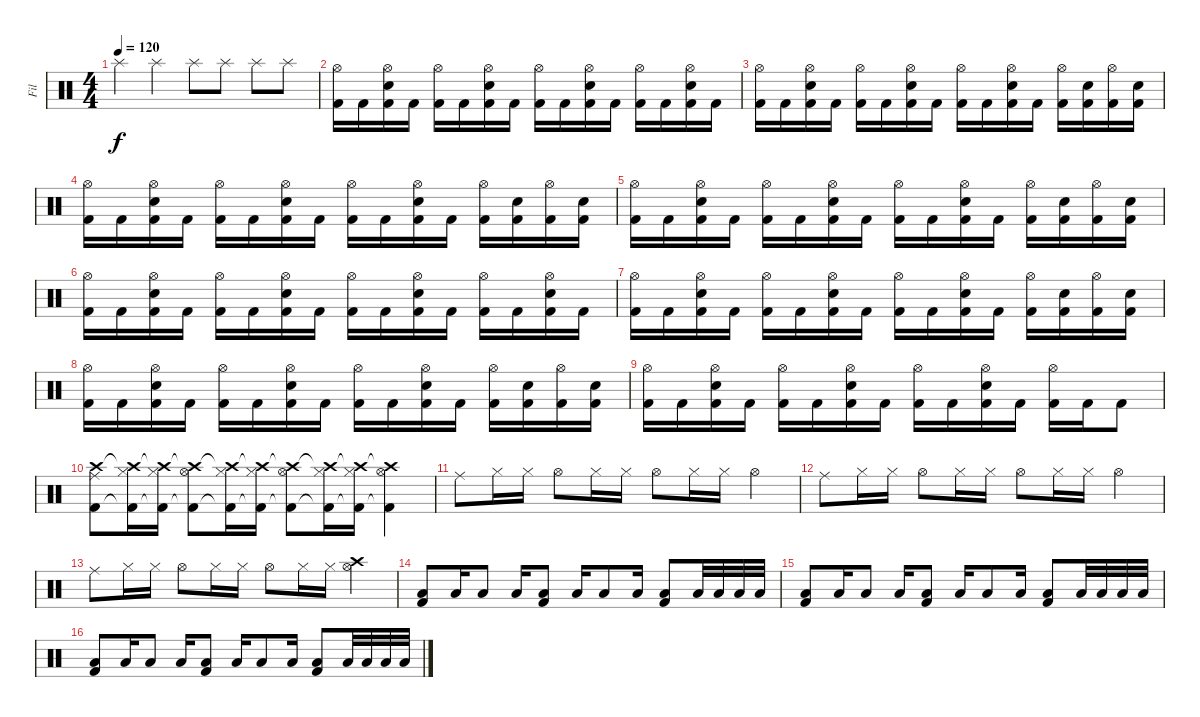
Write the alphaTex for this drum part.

\track ("Fil" "Fil") {instrument percussion}
\staff {score}
\articulation defaults
\ts (4 4)
\tempo 120
\clef neutral
\ks c "Splash (hit)".4{dy f} "Splash (hit)".4 "Splash (hit)".8 "Splash (hit)".8 "Splash (hit)".8 "Splash (hit)".8
|
("Kick (hit) 2" "Hi-Hat (open)").16 "Kick (hit) 2".16 ("Kick (hit) 2" "Snare (hit) 2" "Hi-Hat (open)").16 "Kick (hit) 2".16 ("Kick (hit) 2" "Hi-Hat (open)").16 "Kick (hit) 2".16 ("Kick (hit) 2" "Snare (hit) 2" "Hi-Hat (open)").16 "Kick (hit) 2".16 ("Kick (hit) 2" "Hi-Hat (open)").16 "Kick (hit) 2".16 ("Kick (hit) 2" "Snare (hit) 2" "Hi-Hat (open)").16 "Kick (hit) 2".16 ("Kick (hit) 2" "Hi-Hat (open)").16 "Kick (hit) 2".16 ("Kick (hit) 2" "Snare (hit) 2" "Hi-Hat (open)").16 "Kick (hit) 2".16 |
("Kick (hit) 2" "Hi-Hat (open)").16 "Kick (hit) 2".16 ("Kick (hit) 2" "Snare (hit) 2" "Hi-Hat (open)").16 "Kick (hit) 2".16 ("Kick (hit) 2" "Hi-Hat (open)").16 "Kick (hit) 2".16 ("Kick (hit) 2" "Snare (hit) 2" "Hi-Hat (open)").16 "Kick (hit) 2".16 ("Kick (hit) 2" "Hi-Hat (open)").16 "Kick (hit) 2".16 ("Kick (hit) 2" "Snare (hit) 2" "Hi-Hat (open)").16 "Kick (hit) 2".16 ("Kick (hit) 2" "Hi-Hat (open)").16 ("Kick (hit) 2" "Snare (hit) 2").16 ("Kick (hit) 2" "Hi-Hat (open)").16 ("Kick (hit) 2" "Snare (hit) 2").16 |
("Kick (hit) 2" "Hi-Hat (open)").16 "Kick (hit) 2".16 ("Kick (hit) 2" "Snare (hit) 2" "Hi-Hat (open)").16 "Kick (hit) 2".16 ("Kick (hit) 2" "Hi-Hat (open)").16 "Kick (hit) 2".16 ("Kick (hit) 2" "Snare (hit) 2" "Hi-Hat (open)").16 "Kick (hit) 2".16 ("Kick (hit) 2" "Hi-Hat (open)").16 "Kick (hit) 2".16 ("Kick (hit) 2" "Snare (hit) 2" "Hi-Hat (open)").16 "Kick (hit) 2".16 ("Kick (hit) 2" "Hi-Hat (open)").16 ("Kick (hit) 2" "Snare (hit) 2").16 ("Kick (hit) 2" "Hi-Hat (open)").16 ("Kick (hit) 2" "Snare (hit) 2").16 |
("Kick (hit) 2" "Hi-Hat (open)").16 "Kick (hit) 2".16 ("Kick (hit) 2" "Snare (hit) 2" "Hi-Hat (open)").16 "Kick (hit) 2".16 ("Kick (hit) 2" "Hi-Hat (open)").16 "Kick (hit) 2".16 ("Kick (hit) 2" "Snare (hit) 2" "Hi-Hat (open)").16 "Kick (hit) 2".16 ("Kick (hit) 2" "Hi-Hat (open)").16 "Kick (hit) 2".16 ("Kick (hit) 2" "Snare (hit) 2" "Hi-Hat (open)").16 "Kick (hit) 2".16 ("Kick (hit) 2" "Hi-Hat (open)").16 ("Kick (hit) 2" "Snare (hit) 2").16 ("Kick (hit) 2" "Hi-Hat (open)").16 ("Kick (hit) 2" "Snare (hit) 2").16 |
("Kick (hit) 2" "Hi-Hat (open)").16 "Kick (hit) 2".16 ("Kick (hit) 2" "Snare (hit) 2" "Hi-Hat (open)").16 "Kick (hit) 2".16 ("Kick (hit) 2" "Hi-Hat (open)").16 "Kick (hit) 2".16 ("Kick (hit) 2" "Snare (hit) 2" "Hi-Hat (open)").16 "Kick (hit) 2".16 ("Kick (hit) 2" "Hi-Hat (open)").16 "Kick (hit) 2".16 ("Kick (hit) 2" "Snare (hit) 2" "Hi-Hat (open)").16 "Kick (hit) 2".16 ("Kick (hit) 2" "Hi-Hat (open)").16 "Kick (hit) 2".16 ("Kick (hit) 2" "Snare (hit) 2" "Hi-Hat (open)").16 "Kick (hit) 2".16 |
("Kick (hit) 2" "Hi-Hat (open)").16 "Kick (hit) 2".16 ("Kick (hit) 2" "Snare (hit) 2" "Hi-Hat (open)").16 "Kick (hit) 2".16 ("Kick (hit) 2" "Hi-Hat (open)").16 "Kick (hit) 2".16 ("Kick (hit) 2" "Snare (hit) 2" "Hi-Hat (open)").16 "Kick (hit) 2".16 ("Kick (hit) 2" "Hi-Hat (open)").16 "Kick (hit) 2".16 ("Kick (hit) 2" "Snare (hit) 2" "Hi-Hat (open)").16 "Kick (hit) 2".16 ("Kick (hit) 2" "Hi-Hat (open)").16 ("Kick (hit) 2" "Snare (hit) 2").16 ("Kick (hit) 2" "Hi-Hat (open)").16 ("Kick (hit) 2" "Snare (hit) 2").16 |
("Kick (hit) 2" "Hi-Hat (open)").16 "Kick (hit) 2".16 ("Kick (hit) 2" "Snare (hit) 2" "Hi-Hat (open)").16 "Kick (hit) 2".16 ("Kick (hit) 2" "Hi-Hat (open)").16 "Kick (hit) 2".16 ("Kick (hit) 2" "Snare (hit) 2" "Hi-Hat (open)").16 "Kick (hit) 2".16 ("Kick (hit) 2" "Hi-Hat (open)").16 "Kick (hit) 2".16 ("Kick (hit) 2" "Snare (hit) 2" "Hi-Hat (open)").16 "Kick (hit) 2".16 ("Kick (hit) 2" "Hi-Hat (open)").16 ("Kick (hit) 2" "Snare (hit) 2").16 ("Kick (hit) 2" "Hi-Hat (open)").16 ("Kick (hit) 2" "Snare (hit) 2").16 |
("Kick (hit) 2" "Hi-Hat (open)").16 "Kick (hit) 2".16 ("Kick (hit) 2" "Snare (hit) 2" "Hi-Hat (open)").16 "Kick (hit) 2".16 ("Kick (hit) 2" "Hi-Hat (open)").16 "Kick (hit) 2".16 ("Kick (hit) 2" "Snare (hit) 2" "Hi-Hat (open)").16 "Kick (hit) 2".16 ("Kick (hit) 2" "Hi-Hat (open)").16 "Kick (hit) 2".16 ("Kick (hit) 2" "Snare (hit) 2" "Hi-Hat (open)").16 "Kick (hit) 2".16 ("Kick (hit) 2" "Hi-Hat (open)").16 "Kick (hit) 2".16 "Kick (hit) 2".8 |
("Ride (middle)" "Crash high (hit)" "Kick (hit) 2").8 ("Hi-Hat (closed)" "Crash high (hit)"{t} "Kick (hit) 2"{t}).16 ("Hi-Hat (closed)" "Crash high (hit)"{t} "Kick (hit) 2"{t}).16 ("Hi-Hat (open)" "Crash high (hit)"{t} "Kick (hit) 2"{t}).8 ("Hi-Hat (closed)" "Crash high (hit)"{t} "Kick (hit) 2"{t}).16 ("Hi-Hat (closed)" "Crash high (hit)"{t} "Kick (hit) 2"{t}).16 ("Hi-Hat (open)" "Crash high (hit)"{t} "Kick (hit) 2"{t}).8 ("Hi-Hat (closed)" "Crash high (hit)"{t} "Kick (hit) 2"{t}).16 ("Hi-Hat (closed)" "Crash high (hit)"{t} "Kick (hit) 2"{t}).16 ("Hi-Hat (open)" "Crash high (hit)"{t} "Kick (hit) 2"{t}).4 |
"Ride (middle)".8 "Hi-Hat (closed)".16 "Hi-Hat (closed)".16 "Hi-Hat (open)".8 "Hi-Hat (closed)".16 "Hi-Hat (closed)".16 "Hi-Hat (open)".8 "Hi-Hat (closed)".16 "Hi-Hat (closed)".16 "Hi-Hat (open)".4 |
"Ride (middle)".8 "Hi-Hat (closed)".16 "Hi-Hat (closed)".16 "Hi-Hat (open)".8 "Hi-Hat (closed)".16 "Hi-Hat (closed)".16 "Hi-Hat (open)".8 "Hi-Hat (closed)".16 "Hi-Hat (closed)".16 "Hi-Hat (open)".4 |
"Ride (middle)".8 "Hi-Hat (closed)".16 "Hi-Hat (closed)".16 "Hi-Hat (open)".8 "Hi-Hat (closed)".16 "Hi-Hat (closed)".16 "Hi-Hat (open)".8 "Hi-Hat (closed)".16 "Hi-Hat (closed)".16 ("Hi-Hat (open)" "Crash high (hit)").4 |
("Low Floor Tom (hit)" "Kick (hit) 2").8 "Low Floor Tom (hit)".16 "Low Floor Tom (hit)".8 "Low Floor Tom (hit)".16 ("Low Floor Tom (hit)" "Kick (hit) 2").8 "Low Floor Tom (hit)".16 "Low Floor Tom (hit)".8 "Low Floor Tom (hit)".16 ("Low Floor Tom (hit)" "Kick (hit) 2").8 "Low Floor Tom (hit)".32 "Low Floor Tom (hit)".32 "Low Floor Tom (hit)".32 "Low Floor Tom (hit)".32 |
("Low Floor Tom (hit)" "Kick (hit) 2").8 "Low Floor Tom (hit)".16 "Low Floor Tom (hit)".8 "Low Floor Tom (hit)".16 ("Low Floor Tom (hit)" "Kick (hit) 2").8 "Low Floor Tom (hit)".16 "Low Floor Tom (hit)".8 "Low Floor Tom (hit)".16 ("Low Floor Tom (hit)" "Kick (hit) 2").8 "Low Floor Tom (hit)".32 "Low Floor Tom (hit)".32 "Low Floor Tom (hit)".32 "Low Floor Tom (hit)".32 |
("Low Floor Tom (hit)" "Kick (hit) 2").8 "Low Floor Tom (hit)".16 "Low Floor Tom (hit)".8 "Low Floor Tom (hit)".16 ("Low Floor Tom (hit)" "Kick (hit) 2").8 "Low Floor Tom (hit)".16 "Low Floor Tom (hit)".8 "Low Floor Tom (hit)".16 ("Low Floor Tom (hit)" "Kick (hit) 2").8 "Low Floor Tom (hit)".32 "Low Floor Tom (hit)".32 "Low Floor Tom (hit)".32 "Low Floor Tom (hit)".32
